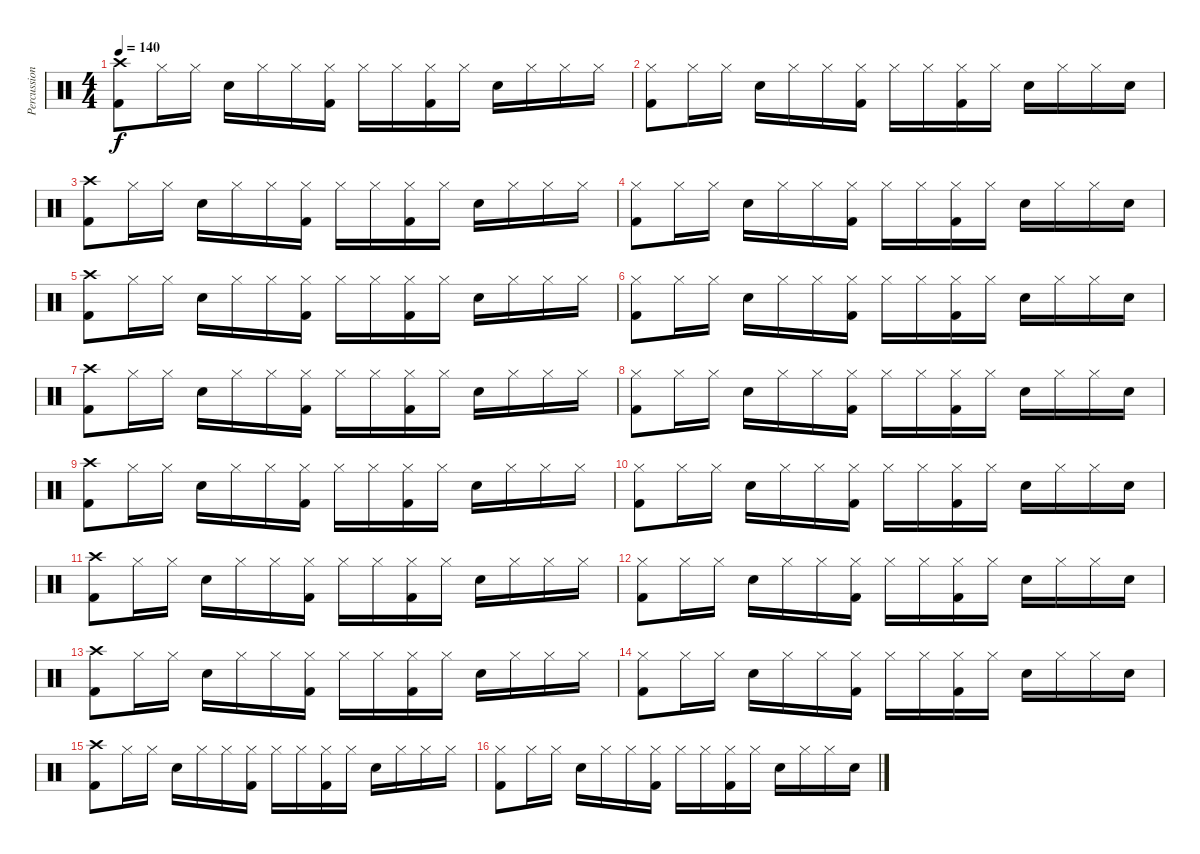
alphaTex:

\track ("Percussion" "Percussion") {instrument percussion}
\staff {score}
\articulation defaults
\ts (4 4)
\tempo 140
\clef neutral
\ks c
("Crash high (hit)" "Kick (hit) 2").8{dy f} "Hi-Hat (closed)".16 "Hi-Hat (closed)".16 "Snare (hit) 2".16 "Hi-Hat (closed)".16 "Hi-Hat (closed)".16 ("Hi-Hat (closed)" "Kick (hit) 2").16 "Hi-Hat (closed)".16 "Hi-Hat (closed)".16 ("Hi-Hat (closed)" "Kick (hit) 2").16 "Hi-Hat (closed)".16 "Snare (hit) 2".16 "Hi-Hat (closed)".16 "Hi-Hat (closed)".16 "Hi-Hat (closed)".16 |
("Hi-Hat (closed)" "Kick (hit) 2").8 "Hi-Hat (closed)".16 "Hi-Hat (closed)".16 "Snare (hit) 2".16 "Hi-Hat (closed)".16 "Hi-Hat (closed)".16 ("Hi-Hat (closed)" "Kick (hit) 2").16 "Hi-Hat (closed)".16 "Hi-Hat (closed)".16 ("Hi-Hat (closed)" "Kick (hit) 2").16 "Hi-Hat (closed)".16 "Snare (hit) 2".16 "Hi-Hat (closed)".16 "Hi-Hat (closed)".16 "Snare (hit) 2".16 |
("Crash high (hit)" "Kick (hit) 2").8 "Hi-Hat (closed)".16 "Hi-Hat (closed)".16 "Snare (hit) 2".16 "Hi-Hat (closed)".16 "Hi-Hat (closed)".16 ("Hi-Hat (closed)" "Kick (hit) 2").16 "Hi-Hat (closed)".16 "Hi-Hat (closed)".16 ("Hi-Hat (closed)" "Kick (hit) 2").16 "Hi-Hat (closed)".16 "Snare (hit) 2".16 "Hi-Hat (closed)".16 "Hi-Hat (closed)".16 "Hi-Hat (closed)".16 |
("Hi-Hat (closed)" "Kick (hit) 2").8 "Hi-Hat (closed)".16 "Hi-Hat (closed)".16 "Snare (hit) 2".16 "Hi-Hat (closed)".16 "Hi-Hat (closed)".16 ("Hi-Hat (closed)" "Kick (hit) 2").16 "Hi-Hat (closed)".16 "Hi-Hat (closed)".16 ("Hi-Hat (closed)" "Kick (hit) 2").16 "Hi-Hat (closed)".16 "Snare (hit) 2".16 "Hi-Hat (closed)".16 "Hi-Hat (closed)".16 "Snare (hit) 2".16 |
("Crash high (hit)" "Kick (hit) 2").8 "Hi-Hat (closed)".16 "Hi-Hat (closed)".16 "Snare (hit) 2".16 "Hi-Hat (closed)".16 "Hi-Hat (closed)".16 ("Hi-Hat (closed)" "Kick (hit) 2").16 "Hi-Hat (closed)".16 "Hi-Hat (closed)".16 ("Hi-Hat (closed)" "Kick (hit) 2").16 "Hi-Hat (closed)".16 "Snare (hit) 2".16 "Hi-Hat (closed)".16 "Hi-Hat (closed)".16 "Hi-Hat (closed)".16 |
("Hi-Hat (closed)" "Kick (hit) 2").8 "Hi-Hat (closed)".16 "Hi-Hat (closed)".16 "Snare (hit) 2".16 "Hi-Hat (closed)".16 "Hi-Hat (closed)".16 ("Hi-Hat (closed)" "Kick (hit) 2").16 "Hi-Hat (closed)".16 "Hi-Hat (closed)".16 ("Hi-Hat (closed)" "Kick (hit) 2").16 "Hi-Hat (closed)".16 "Snare (hit) 2".16 "Hi-Hat (closed)".16 "Hi-Hat (closed)".16 "Snare (hit) 2".16 |
("Crash high (hit)" "Kick (hit) 2").8 "Hi-Hat (closed)".16 "Hi-Hat (closed)".16 "Snare (hit) 2".16 "Hi-Hat (closed)".16 "Hi-Hat (closed)".16 ("Hi-Hat (closed)" "Kick (hit) 2").16 "Hi-Hat (closed)".16 "Hi-Hat (closed)".16 ("Hi-Hat (closed)" "Kick (hit) 2").16 "Hi-Hat (closed)".16 "Snare (hit) 2".16 "Hi-Hat (closed)".16 "Hi-Hat (closed)".16 "Hi-Hat (closed)".16 |
("Hi-Hat (closed)" "Kick (hit) 2").8 "Hi-Hat (closed)".16 "Hi-Hat (closed)".16 "Snare (hit) 2".16 "Hi-Hat (closed)".16 "Hi-Hat (closed)".16 ("Hi-Hat (closed)" "Kick (hit) 2").16 "Hi-Hat (closed)".16 "Hi-Hat (closed)".16 ("Hi-Hat (closed)" "Kick (hit) 2").16 "Hi-Hat (closed)".16 "Snare (hit) 2".16 "Hi-Hat (closed)".16 "Hi-Hat (closed)".16 "Snare (hit) 2".16 |
("Crash high (hit)" "Kick (hit) 2").8 "Hi-Hat (closed)".16 "Hi-Hat (closed)".16 "Snare (hit) 2".16 "Hi-Hat (closed)".16 "Hi-Hat (closed)".16 ("Hi-Hat (closed)" "Kick (hit) 2").16 "Hi-Hat (closed)".16 "Hi-Hat (closed)".16 ("Hi-Hat (closed)" "Kick (hit) 2").16 "Hi-Hat (closed)".16 "Snare (hit) 2".16 "Hi-Hat (closed)".16 "Hi-Hat (closed)".16 "Hi-Hat (closed)".16 |
("Hi-Hat (closed)" "Kick (hit) 2").8 "Hi-Hat (closed)".16 "Hi-Hat (closed)".16 "Snare (hit) 2".16 "Hi-Hat (closed)".16 "Hi-Hat (closed)".16 ("Hi-Hat (closed)" "Kick (hit) 2").16 "Hi-Hat (closed)".16 "Hi-Hat (closed)".16 ("Hi-Hat (closed)" "Kick (hit) 2").16 "Hi-Hat (closed)".16 "Snare (hit) 2".16 "Hi-Hat (closed)".16 "Hi-Hat (closed)".16 "Snare (hit) 2".16 |
("Crash high (hit)" "Kick (hit) 2").8 "Hi-Hat (closed)".16 "Hi-Hat (closed)".16 "Snare (hit) 2".16 "Hi-Hat (closed)".16 "Hi-Hat (closed)".16 ("Hi-Hat (closed)" "Kick (hit) 2").16 "Hi-Hat (closed)".16 "Hi-Hat (closed)".16 ("Hi-Hat (closed)" "Kick (hit) 2").16 "Hi-Hat (closed)".16 "Snare (hit) 2".16 "Hi-Hat (closed)".16 "Hi-Hat (closed)".16 "Hi-Hat (closed)".16 |
("Hi-Hat (closed)" "Kick (hit) 2").8 "Hi-Hat (closed)".16 "Hi-Hat (closed)".16 "Snare (hit) 2".16 "Hi-Hat (closed)".16 "Hi-Hat (closed)".16 ("Hi-Hat (closed)" "Kick (hit) 2").16 "Hi-Hat (closed)".16 "Hi-Hat (closed)".16 ("Hi-Hat (closed)" "Kick (hit) 2").16 "Hi-Hat (closed)".16 "Snare (hit) 2".16 "Hi-Hat (closed)".16 "Hi-Hat (closed)".16 "Snare (hit) 2".16 |
("Crash high (hit)" "Kick (hit) 2").8 "Hi-Hat (closed)".16 "Hi-Hat (closed)".16 "Snare (hit) 2".16 "Hi-Hat (closed)".16 "Hi-Hat (closed)".16 ("Hi-Hat (closed)" "Kick (hit) 2").16 "Hi-Hat (closed)".16 "Hi-Hat (closed)".16 ("Hi-Hat (closed)" "Kick (hit) 2").16 "Hi-Hat (closed)".16 "Snare (hit) 2".16 "Hi-Hat (closed)".16 "Hi-Hat (closed)".16 "Hi-Hat (closed)".16 |
("Hi-Hat (closed)" "Kick (hit) 2").8 "Hi-Hat (closed)".16 "Hi-Hat (closed)".16 "Snare (hit) 2".16 "Hi-Hat (closed)".16 "Hi-Hat (closed)".16 ("Hi-Hat (closed)" "Kick (hit) 2").16 "Hi-Hat (closed)".16 "Hi-Hat (closed)".16 ("Hi-Hat (closed)" "Kick (hit) 2").16 "Hi-Hat (closed)".16 "Snare (hit) 2".16 "Hi-Hat (closed)".16 "Hi-Hat (closed)".16 "Snare (hit) 2".16 |
("Crash high (hit)" "Kick (hit) 2").8 "Hi-Hat (closed)".16 "Hi-Hat (closed)".16 "Snare (hit) 2".16 "Hi-Hat (closed)".16 "Hi-Hat (closed)".16 ("Hi-Hat (closed)" "Kick (hit) 2").16 "Hi-Hat (closed)".16 "Hi-Hat (closed)".16 ("Hi-Hat (closed)" "Kick (hit) 2").16 "Hi-Hat (closed)".16 "Snare (hit) 2".16 "Hi-Hat (closed)".16 "Hi-Hat (closed)".16 "Hi-Hat (closed)".16 |
("Hi-Hat (closed)" "Kick (hit) 2").8 "Hi-Hat (closed)".16 "Hi-Hat (closed)".16 "Snare (hit) 2".16 "Hi-Hat (closed)".16 "Hi-Hat (closed)".16 ("Hi-Hat (closed)" "Kick (hit) 2").16 "Hi-Hat (closed)".16 "Hi-Hat (closed)".16 ("Hi-Hat (closed)" "Kick (hit) 2").16 "Hi-Hat (closed)".16 "Snare (hit) 2".16 "Hi-Hat (closed)".16 "Hi-Hat (closed)".16 "Snare (hit) 2".16
